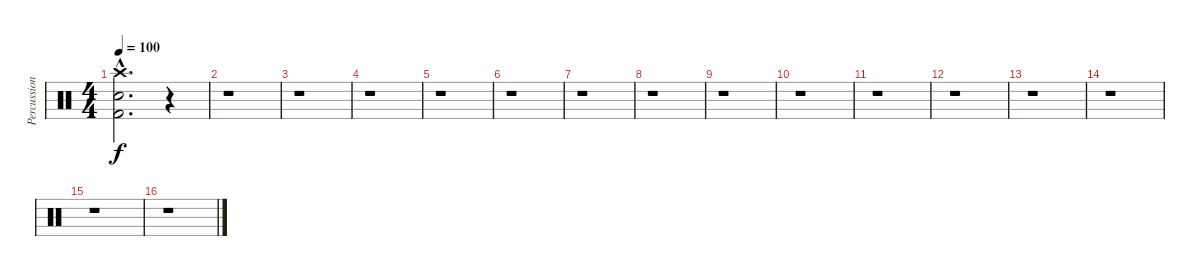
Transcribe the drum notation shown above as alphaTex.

\track ("Percussions" "Percussion") {instrument percussion}
\staff {score}
\articulation defaults
\ts (4 4)
\tempo 100
\clef neutral
\ks c
("Crash high (hit)"{hac} "Snare (hit) 2"{hac} "Kick (hit) 2"{hac}).2{d dy f} r.4 |
r.1 |
r.1 |
r.1 |
r.1 |
r.1 |
r.1 |
r.1 |
r.1 |
r.1 |
r.1 |
r.1 |
r.1 |
r.1 |
r.1 |
r.1
